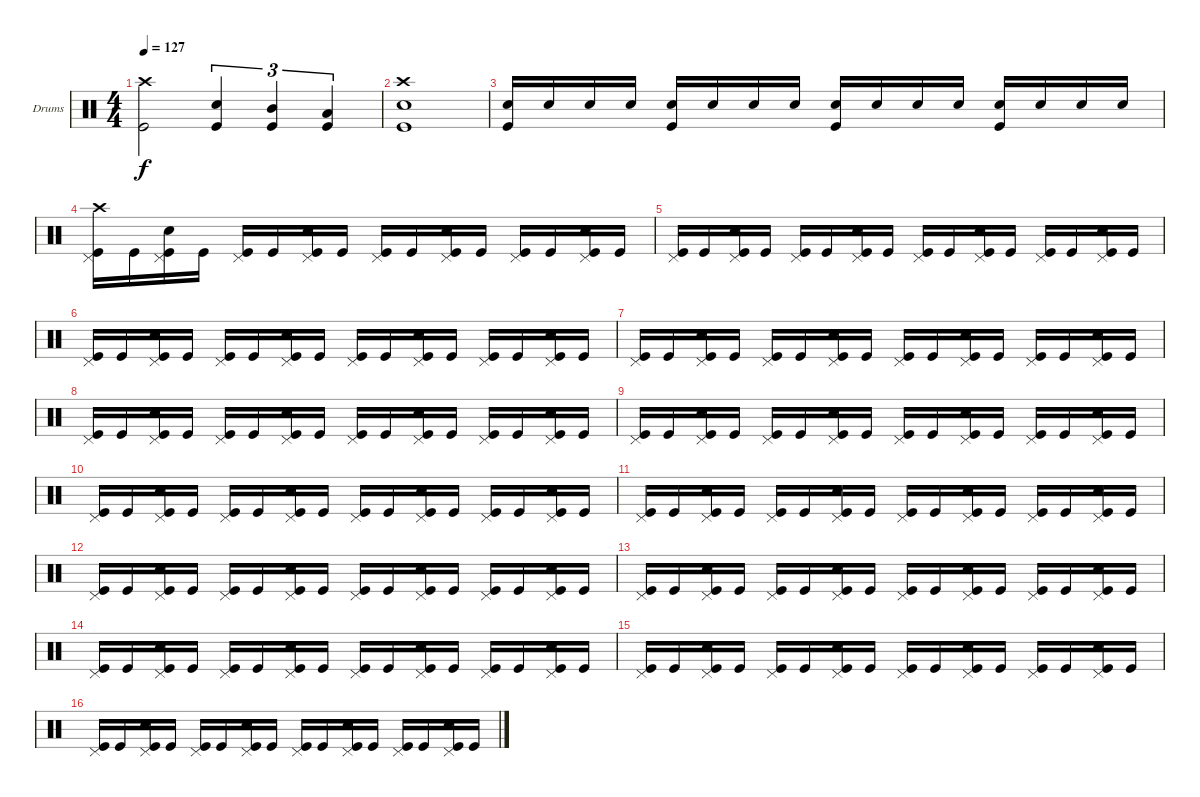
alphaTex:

\bracketExtendMode groupsimilarinstruments
\firstSystemTrackNameOrientation horizontal
\otherSystemsTrackNameOrientation horizontal
\track ("Drumkit" "Drums") {instrument percussion}
\staff {score}
\articulation defaults
\ts (4 4)
\tempo 127
\clef neutral
\ks c
("Crash high (hit)" "Kick (hit)").2{dy f} ("Snare (hit) 2" "Kick (hit)").4{tu (3 2)} ("Kick (hit)" "Mid Tom (hit)").4{tu (3 2)} ("Kick (hit)" "Low Tom (hit)").4{tu (3 2)} |
("Crash high (hit)" "Snare (hit) 2" "Kick (hit)").1 |
("Snare (hit) 2" "Kick (hit)").16 "Snare (hit) 2".16 "Snare (hit) 2".16 "Snare (hit) 2".16 ("Snare (hit) 2" "Kick (hit)").16 "Snare (hit) 2".16 "Snare (hit) 2".16 "Snare (hit) 2".16 ("Snare (hit) 2" "Kick (hit)").16 "Snare (hit) 2".16 "Snare (hit) 2".16 "Snare (hit) 2".16 ("Snare (hit) 2" "Kick (hit)").16 "Snare (hit) 2".16 "Snare (hit) 2".16 "Snare (hit) 2".16 |
("Pedal Hi-Hat (hit)" "Crash high (hit)" "Kick (hit)").16 "Kick (hit)".16 ("Pedal Hi-Hat (hit)" "Snare (hit) 2" "Kick (hit)").16 "Kick (hit)".16 ("Pedal Hi-Hat (hit)" "Kick (hit)").16 "Kick (hit)".16 ("Pedal Hi-Hat (hit)" "Snare (hit) 2" "Kick (hit)").16 "Kick (hit)".16 ("Pedal Hi-Hat (hit)" "Kick (hit)").16 "Kick (hit)".16 ("Pedal Hi-Hat (hit)" "Snare (hit) 2" "Kick (hit)").16 "Kick (hit)".16 ("Pedal Hi-Hat (hit)" "Kick (hit)").16 "Kick (hit)".16 ("Pedal Hi-Hat (hit)" "Snare (hit) 2" "Kick (hit)").16 "Kick (hit)".16 |
("Pedal Hi-Hat (hit)" "Kick (hit)").16 "Kick (hit)".16 ("Pedal Hi-Hat (hit)" "Snare (hit) 2" "Kick (hit)").16 "Kick (hit)".16 ("Pedal Hi-Hat (hit)" "Kick (hit)").16 "Kick (hit)".16 ("Pedal Hi-Hat (hit)" "Snare (hit) 2" "Kick (hit)").16 "Kick (hit)".16 ("Pedal Hi-Hat (hit)" "Kick (hit)").16 "Kick (hit)".16 ("Pedal Hi-Hat (hit)" "Snare (hit) 2" "Kick (hit)").16 "Kick (hit)".16 ("Pedal Hi-Hat (hit)" "Kick (hit)").16 "Kick (hit)".16 ("Pedal Hi-Hat (hit)" "Snare (hit) 2" "Kick (hit)").16 "Kick (hit)".16 |
("Pedal Hi-Hat (hit)" "Kick (hit)").16 "Kick (hit)".16 ("Pedal Hi-Hat (hit)" "Snare (hit) 2" "Kick (hit)").16 "Kick (hit)".16 ("Pedal Hi-Hat (hit)" "Kick (hit)").16 "Kick (hit)".16 ("Pedal Hi-Hat (hit)" "Snare (hit) 2" "Kick (hit)").16 "Kick (hit)".16 ("Pedal Hi-Hat (hit)" "Kick (hit)").16 "Kick (hit)".16 ("Pedal Hi-Hat (hit)" "Snare (hit) 2" "Kick (hit)").16 "Kick (hit)".16 ("Pedal Hi-Hat (hit)" "Kick (hit)").16 "Kick (hit)".16 ("Pedal Hi-Hat (hit)" "Snare (hit) 2" "Kick (hit)").16 "Kick (hit)".16 |
("Pedal Hi-Hat (hit)" "Kick (hit)").16 "Kick (hit)".16 ("Pedal Hi-Hat (hit)" "Snare (hit) 2" "Kick (hit)").16 "Kick (hit)".16 ("Pedal Hi-Hat (hit)" "Kick (hit)").16 "Kick (hit)".16 ("Pedal Hi-Hat (hit)" "Snare (hit) 2" "Kick (hit)").16 "Kick (hit)".16 ("Pedal Hi-Hat (hit)" "Kick (hit)").16 "Kick (hit)".16 ("Pedal Hi-Hat (hit)" "Snare (hit) 2" "Kick (hit)").16 "Kick (hit)".16 ("Pedal Hi-Hat (hit)" "Kick (hit)").16 "Kick (hit)".16 ("Pedal Hi-Hat (hit)" "Snare (hit) 2" "Kick (hit)").16 "Kick (hit)".16 |
("Pedal Hi-Hat (hit)" "Kick (hit)").16 "Kick (hit)".16 ("Pedal Hi-Hat (hit)" "Snare (hit) 2" "Kick (hit)").16 "Kick (hit)".16 ("Pedal Hi-Hat (hit)" "Kick (hit)").16 "Kick (hit)".16 ("Pedal Hi-Hat (hit)" "Snare (hit) 2" "Kick (hit)").16 "Kick (hit)".16 ("Pedal Hi-Hat (hit)" "Kick (hit)").16 "Kick (hit)".16 ("Pedal Hi-Hat (hit)" "Snare (hit) 2" "Kick (hit)").16 "Kick (hit)".16 ("Pedal Hi-Hat (hit)" "Kick (hit)").16 "Kick (hit)".16 ("Pedal Hi-Hat (hit)" "Snare (hit) 2" "Kick (hit)").16 "Kick (hit)".16 |
("Pedal Hi-Hat (hit)" "Kick (hit)").16 "Kick (hit)".16 ("Pedal Hi-Hat (hit)" "Snare (hit) 2" "Kick (hit)").16 "Kick (hit)".16 ("Pedal Hi-Hat (hit)" "Kick (hit)").16 "Kick (hit)".16 ("Pedal Hi-Hat (hit)" "Snare (hit) 2" "Kick (hit)").16 "Kick (hit)".16 ("Pedal Hi-Hat (hit)" "Kick (hit)").16 "Kick (hit)".16 ("Pedal Hi-Hat (hit)" "Snare (hit) 2" "Kick (hit)").16 "Kick (hit)".16 ("Pedal Hi-Hat (hit)" "Kick (hit)").16 "Kick (hit)".16 ("Pedal Hi-Hat (hit)" "Snare (hit) 2" "Kick (hit)").16 "Kick (hit)".16 |
("Pedal Hi-Hat (hit)" "Kick (hit)").16 "Kick (hit)".16 ("Pedal Hi-Hat (hit)" "Snare (hit) 2" "Kick (hit)").16 "Kick (hit)".16 ("Pedal Hi-Hat (hit)" "Kick (hit)").16 "Kick (hit)".16 ("Pedal Hi-Hat (hit)" "Snare (hit) 2" "Kick (hit)").16 "Kick (hit)".16 ("Pedal Hi-Hat (hit)" "Kick (hit)").16 "Kick (hit)".16 ("Pedal Hi-Hat (hit)" "Snare (hit) 2" "Kick (hit)").16 "Kick (hit)".16 ("Pedal Hi-Hat (hit)" "Kick (hit)").16 "Kick (hit)".16 ("Pedal Hi-Hat (hit)" "Snare (hit) 2" "Kick (hit)").16 "Kick (hit)".16 |
("Pedal Hi-Hat (hit)" "Kick (hit)").16 "Kick (hit)".16 ("Pedal Hi-Hat (hit)" "Snare (hit) 2" "Kick (hit)").16 "Kick (hit)".16 ("Pedal Hi-Hat (hit)" "Kick (hit)").16 "Kick (hit)".16 ("Pedal Hi-Hat (hit)" "Snare (hit) 2" "Kick (hit)").16 "Kick (hit)".16 ("Pedal Hi-Hat (hit)" "Kick (hit)").16 "Kick (hit)".16 ("Pedal Hi-Hat (hit)" "Snare (hit) 2" "Kick (hit)").16 "Kick (hit)".16 ("Pedal Hi-Hat (hit)" "Kick (hit)").16 "Kick (hit)".16 ("Pedal Hi-Hat (hit)" "Snare (hit) 2" "Kick (hit)").16 "Kick (hit)".16 |
("Pedal Hi-Hat (hit)" "Kick (hit)").16 "Kick (hit)".16 ("Pedal Hi-Hat (hit)" "Snare (hit) 2" "Kick (hit)").16 "Kick (hit)".16 ("Pedal Hi-Hat (hit)" "Kick (hit)").16 "Kick (hit)".16 ("Pedal Hi-Hat (hit)" "Snare (hit) 2" "Kick (hit)").16 "Kick (hit)".16 ("Pedal Hi-Hat (hit)" "Kick (hit)").16 "Kick (hit)".16 ("Pedal Hi-Hat (hit)" "Snare (hit) 2" "Kick (hit)").16 "Kick (hit)".16 ("Pedal Hi-Hat (hit)" "Kick (hit)").16 "Kick (hit)".16 ("Pedal Hi-Hat (hit)" "Snare (hit) 2" "Kick (hit)").16 "Kick (hit)".16 |
("Pedal Hi-Hat (hit)" "Kick (hit)").16 "Kick (hit)".16 ("Pedal Hi-Hat (hit)" "Snare (hit) 2" "Kick (hit)").16 "Kick (hit)".16 ("Pedal Hi-Hat (hit)" "Kick (hit)").16 "Kick (hit)".16 ("Pedal Hi-Hat (hit)" "Snare (hit) 2" "Kick (hit)").16 "Kick (hit)".16 ("Pedal Hi-Hat (hit)" "Kick (hit)").16 "Kick (hit)".16 ("Pedal Hi-Hat (hit)" "Snare (hit) 2" "Kick (hit)").16 "Kick (hit)".16 ("Pedal Hi-Hat (hit)" "Kick (hit)").16 "Kick (hit)".16 ("Pedal Hi-Hat (hit)" "Snare (hit) 2" "Kick (hit)").16 "Kick (hit)".16 |
("Pedal Hi-Hat (hit)" "Kick (hit)").16 "Kick (hit)".16 ("Pedal Hi-Hat (hit)" "Snare (hit) 2" "Kick (hit)").16 "Kick (hit)".16 ("Pedal Hi-Hat (hit)" "Kick (hit)").16 "Kick (hit)".16 ("Pedal Hi-Hat (hit)" "Snare (hit) 2" "Kick (hit)").16 "Kick (hit)".16 ("Pedal Hi-Hat (hit)" "Kick (hit)").16 "Kick (hit)".16 ("Pedal Hi-Hat (hit)" "Snare (hit) 2" "Kick (hit)").16 "Kick (hit)".16 ("Pedal Hi-Hat (hit)" "Kick (hit)").16 "Kick (hit)".16 ("Pedal Hi-Hat (hit)" "Snare (hit) 2" "Kick (hit)").16 "Kick (hit)".16 |
("Pedal Hi-Hat (hit)" "Kick (hit)").16 "Kick (hit)".16 ("Pedal Hi-Hat (hit)" "Snare (hit) 2" "Kick (hit)").16 "Kick (hit)".16 ("Pedal Hi-Hat (hit)" "Kick (hit)").16 "Kick (hit)".16 ("Pedal Hi-Hat (hit)" "Snare (hit) 2" "Kick (hit)").16 "Kick (hit)".16 ("Pedal Hi-Hat (hit)" "Kick (hit)").16 "Kick (hit)".16 ("Pedal Hi-Hat (hit)" "Snare (hit) 2" "Kick (hit)").16 "Kick (hit)".16 ("Pedal Hi-Hat (hit)" "Kick (hit)").16 "Kick (hit)".16 ("Pedal Hi-Hat (hit)" "Snare (hit) 2" "Kick (hit)").16 "Kick (hit)".16 |
("Pedal Hi-Hat (hit)" "Kick (hit)").16 "Kick (hit)".16 ("Pedal Hi-Hat (hit)" "Snare (hit) 2" "Kick (hit)").16 "Kick (hit)".16 ("Pedal Hi-Hat (hit)" "Kick (hit)").16 "Kick (hit)".16 ("Pedal Hi-Hat (hit)" "Snare (hit) 2" "Kick (hit)").16 "Kick (hit)".16 ("Pedal Hi-Hat (hit)" "Kick (hit)").16 "Kick (hit)".16 ("Pedal Hi-Hat (hit)" "Snare (hit) 2" "Kick (hit)").16 "Kick (hit)".16 ("Pedal Hi-Hat (hit)" "Kick (hit)").16 "Kick (hit)".16 ("Pedal Hi-Hat (hit)" "Snare (hit) 2" "Kick (hit)").16 "Kick (hit)".16
